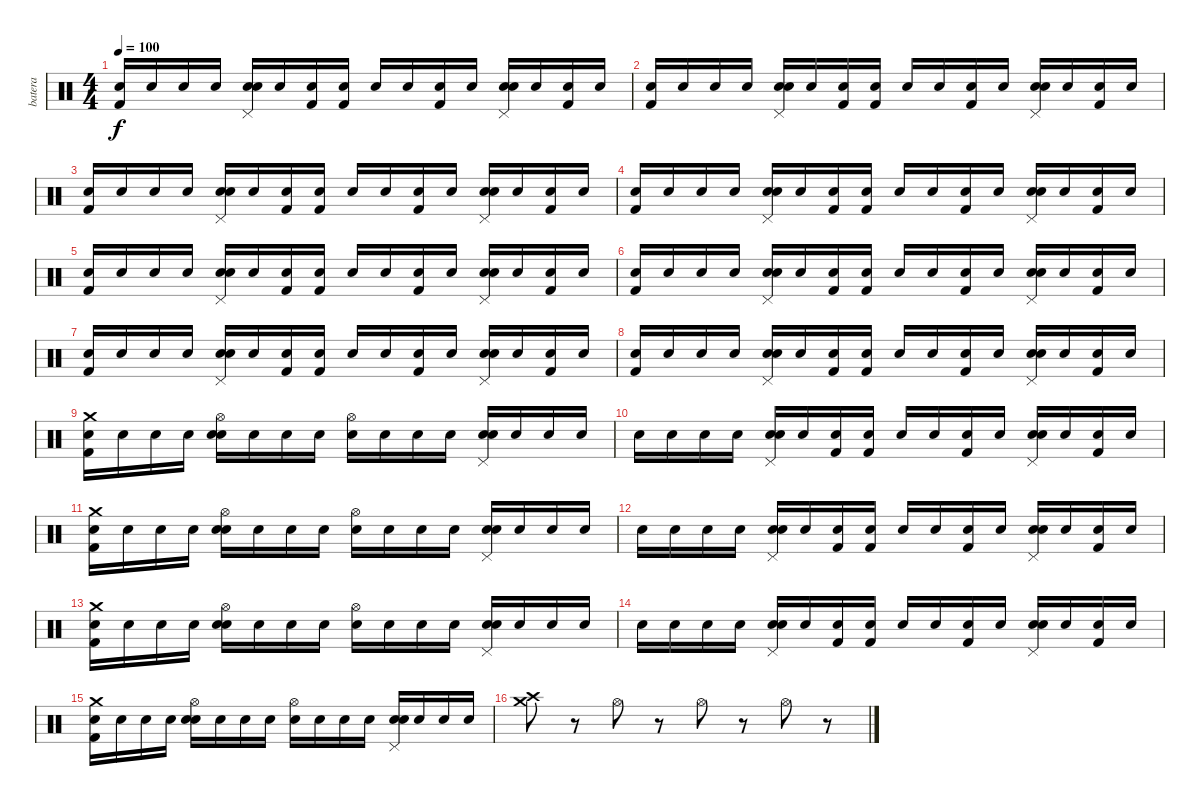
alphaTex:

\track ("batera" "batera") {instrument percussion}
\staff {score}
\articulation defaults
\ts (4 4)
\tempo 100
\clef neutral
\ks c
("Snare (hit)" "Kick (hit) 2").16{dy f} "Snare (hit)".16 "Snare (hit)".16 "Snare (hit)".16 ("Snare (hit)" "Pedal Hi-Hat (hit)" "Snare (hit) 2").16 "Snare (hit)".16 ("Snare (hit)" "Kick (hit) 2").16 ("Snare (hit)" "Kick (hit) 2").16 "Snare (hit)".16 "Snare (hit)".16 ("Snare (hit)" "Kick (hit) 2").16 "Snare (hit)".16 ("Snare (hit)" "Pedal Hi-Hat (hit)" "Snare (hit) 2").16 "Snare (hit)".16 ("Snare (hit)" "Kick (hit) 2").16 "Snare (hit)".16 |
("Snare (hit)" "Kick (hit) 2").16 "Snare (hit)".16 "Snare (hit)".16 "Snare (hit)".16 ("Snare (hit)" "Pedal Hi-Hat (hit)" "Snare (hit) 2").16 "Snare (hit)".16 ("Snare (hit)" "Kick (hit) 2").16 ("Snare (hit)" "Kick (hit) 2").16 "Snare (hit)".16 "Snare (hit)".16 ("Snare (hit)" "Kick (hit) 2").16 "Snare (hit)".16 ("Snare (hit)" "Pedal Hi-Hat (hit)" "Snare (hit) 2").16 "Snare (hit)".16 ("Snare (hit)" "Kick (hit) 2").16 "Snare (hit)".16 |
("Snare (hit)" "Kick (hit) 2").16 "Snare (hit)".16 "Snare (hit)".16 "Snare (hit)".16 ("Snare (hit)" "Pedal Hi-Hat (hit)" "Snare (hit) 2").16 "Snare (hit)".16 ("Snare (hit)" "Kick (hit) 2").16 ("Snare (hit)" "Kick (hit) 2").16 "Snare (hit)".16 "Snare (hit)".16 ("Snare (hit)" "Kick (hit) 2").16 "Snare (hit)".16 ("Snare (hit)" "Pedal Hi-Hat (hit)" "Snare (hit) 2").16 "Snare (hit)".16 ("Snare (hit)" "Kick (hit) 2").16 "Snare (hit)".16 |
("Snare (hit)" "Kick (hit) 2").16 "Snare (hit)".16 "Snare (hit)".16 "Snare (hit)".16 ("Snare (hit)" "Pedal Hi-Hat (hit)" "Snare (hit) 2").16 "Snare (hit)".16 ("Snare (hit)" "Kick (hit) 2").16 ("Snare (hit)" "Kick (hit) 2").16 "Snare (hit)".16 "Snare (hit)".16 ("Snare (hit)" "Kick (hit) 2").16 "Snare (hit)".16 ("Snare (hit)" "Pedal Hi-Hat (hit)" "Snare (hit) 2").16 "Snare (hit)".16 ("Snare (hit)" "Kick (hit) 2").16 "Snare (hit)".16 |
("Snare (hit)" "Kick (hit) 2").16 "Snare (hit)".16 "Snare (hit)".16 "Snare (hit)".16 ("Snare (hit)" "Pedal Hi-Hat (hit)" "Snare (hit) 2").16 "Snare (hit)".16 ("Snare (hit)" "Kick (hit) 2").16 ("Snare (hit)" "Kick (hit) 2").16 "Snare (hit)".16 "Snare (hit)".16 ("Snare (hit)" "Kick (hit) 2").16 "Snare (hit)".16 ("Snare (hit)" "Pedal Hi-Hat (hit)" "Snare (hit) 2").16 "Snare (hit)".16 ("Snare (hit)" "Kick (hit) 2").16 "Snare (hit)".16 |
("Snare (hit)" "Kick (hit) 2").16 "Snare (hit)".16 "Snare (hit)".16 "Snare (hit)".16 ("Snare (hit)" "Pedal Hi-Hat (hit)" "Snare (hit) 2").16 "Snare (hit)".16 ("Snare (hit)" "Kick (hit) 2").16 ("Snare (hit)" "Kick (hit) 2").16 "Snare (hit)".16 "Snare (hit)".16 ("Snare (hit)" "Kick (hit) 2").16 "Snare (hit)".16 ("Snare (hit)" "Pedal Hi-Hat (hit)" "Snare (hit) 2").16 "Snare (hit)".16 ("Snare (hit)" "Kick (hit) 2").16 "Snare (hit)".16 |
("Snare (hit)" "Kick (hit) 2").16 "Snare (hit)".16 "Snare (hit)".16 "Snare (hit)".16 ("Snare (hit)" "Pedal Hi-Hat (hit)" "Snare (hit) 2").16 "Snare (hit)".16 ("Snare (hit)" "Kick (hit) 2").16 ("Snare (hit)" "Kick (hit) 2").16 "Snare (hit)".16 "Snare (hit)".16 ("Snare (hit)" "Kick (hit) 2").16 "Snare (hit)".16 ("Snare (hit)" "Pedal Hi-Hat (hit)" "Snare (hit) 2").16 "Snare (hit)".16 ("Snare (hit)" "Kick (hit) 2").16 "Snare (hit)".16 |
("Snare (hit)" "Kick (hit) 2").16 "Snare (hit)".16 "Snare (hit)".16 "Snare (hit)".16 ("Snare (hit)" "Pedal Hi-Hat (hit)" "Snare (hit) 2").16 "Snare (hit)".16 ("Snare (hit)" "Kick (hit) 2").16 ("Snare (hit)" "Kick (hit) 2").16 "Snare (hit)".16 "Snare (hit)".16 ("Snare (hit)" "Kick (hit) 2").16 "Snare (hit)".16 ("Snare (hit)" "Pedal Hi-Hat (hit)" "Snare (hit) 2").16 "Snare (hit)".16 ("Snare (hit)" "Kick (hit) 2").16 "Snare (hit)".16 |
("Snare (hit)" "Crash medium (hit)" "Kick (hit) 2").16 "Snare (hit)".16 "Snare (hit)".16 "Snare (hit)".16 ("Snare (hit)" "Snare (hit) 2" "Hi-Hat (open)").16 "Snare (hit)".16 "Snare (hit)".16 "Snare (hit)".16 ("Snare (hit)" "Hi-Hat (open)").16 "Snare (hit)".16 "Snare (hit)".16 "Snare (hit)".16 ("Snare (hit)" "Pedal Hi-Hat (hit)" "Snare (hit) 2").16 "Snare (hit)".16 "Snare (hit)".16 "Snare (hit)".16 |
"Snare (hit)".16 "Snare (hit)".16 "Snare (hit)".16 "Snare (hit)".16 ("Snare (hit)" "Pedal Hi-Hat (hit)" "Snare (hit) 2").16 "Snare (hit)".16 ("Snare (hit)" "Kick (hit) 2").16 ("Snare (hit)" "Kick (hit) 2").16 "Snare (hit)".16 "Snare (hit)".16 ("Snare (hit)" "Kick (hit) 2").16 "Snare (hit)".16 ("Snare (hit)" "Pedal Hi-Hat (hit)" "Snare (hit) 2").16 "Snare (hit)".16 ("Snare (hit)" "Kick (hit) 2").16 "Snare (hit)".16 |
("Snare (hit)" "Crash medium (hit)" "Kick (hit) 2").16 "Snare (hit)".16 "Snare (hit)".16 "Snare (hit)".16 ("Snare (hit)" "Snare (hit) 2" "Hi-Hat (open)").16 "Snare (hit)".16 "Snare (hit)".16 "Snare (hit)".16 ("Snare (hit)" "Hi-Hat (open)").16 "Snare (hit)".16 "Snare (hit)".16 "Snare (hit)".16 ("Snare (hit)" "Pedal Hi-Hat (hit)" "Snare (hit) 2").16 "Snare (hit)".16 "Snare (hit)".16 "Snare (hit)".16 |
"Snare (hit)".16 "Snare (hit)".16 "Snare (hit)".16 "Snare (hit)".16 ("Snare (hit)" "Pedal Hi-Hat (hit)" "Snare (hit) 2").16 "Snare (hit)".16 ("Snare (hit)" "Kick (hit) 2").16 ("Snare (hit)" "Kick (hit) 2").16 "Snare (hit)".16 "Snare (hit)".16 ("Snare (hit)" "Kick (hit) 2").16 "Snare (hit)".16 ("Snare (hit)" "Pedal Hi-Hat (hit)" "Snare (hit) 2").16 "Snare (hit)".16 ("Snare (hit)" "Kick (hit) 2").16 "Snare (hit)".16 |
("Snare (hit)" "Crash medium (hit)" "Kick (hit) 2").16 "Snare (hit)".16 "Snare (hit)".16 "Snare (hit)".16 ("Snare (hit)" "Snare (hit) 2" "Hi-Hat (open)").16 "Snare (hit)".16 "Snare (hit)".16 "Snare (hit)".16 ("Snare (hit)" "Hi-Hat (open)").16 "Snare (hit)".16 "Snare (hit)".16 "Snare (hit)".16 ("Snare (hit)" "Pedal Hi-Hat (hit)" "Snare (hit) 2").16 "Snare (hit)".16 "Snare (hit)".16 "Snare (hit)".16 |
"Snare (hit)".16 "Snare (hit)".16 "Snare (hit)".16 "Snare (hit)".16 ("Snare (hit)" "Pedal Hi-Hat (hit)" "Snare (hit) 2").16 "Snare (hit)".16 ("Snare (hit)" "Kick (hit) 2").16 ("Snare (hit)" "Kick (hit) 2").16 "Snare (hit)".16 "Snare (hit)".16 ("Snare (hit)" "Kick (hit) 2").16 "Snare (hit)".16 ("Snare (hit)" "Pedal Hi-Hat (hit)" "Snare (hit) 2").16 "Snare (hit)".16 ("Snare (hit)" "Kick (hit) 2").16 "Snare (hit)".16 |
("Snare (hit)" "Crash medium (hit)" "Kick (hit) 2").16 "Snare (hit)".16 "Snare (hit)".16 "Snare (hit)".16 ("Snare (hit)" "Snare (hit) 2" "Hi-Hat (open)").16 "Snare (hit)".16 "Snare (hit)".16 "Snare (hit)".16 ("Snare (hit)" "Hi-Hat (open)").16 "Snare (hit)".16 "Snare (hit)".16 "Snare (hit)".16 ("Snare (hit)" "Pedal Hi-Hat (hit)" "Snare (hit) 2").16 "Snare (hit)".16 "Snare (hit)".16 "Snare (hit)".16 |
("Crash high (hit)" "Crash medium (hit)").8 r.8 "Hi-Hat (open)".8 r.8 "Hi-Hat (open)".8 r.8 "Hi-Hat (open)".8 r.8
